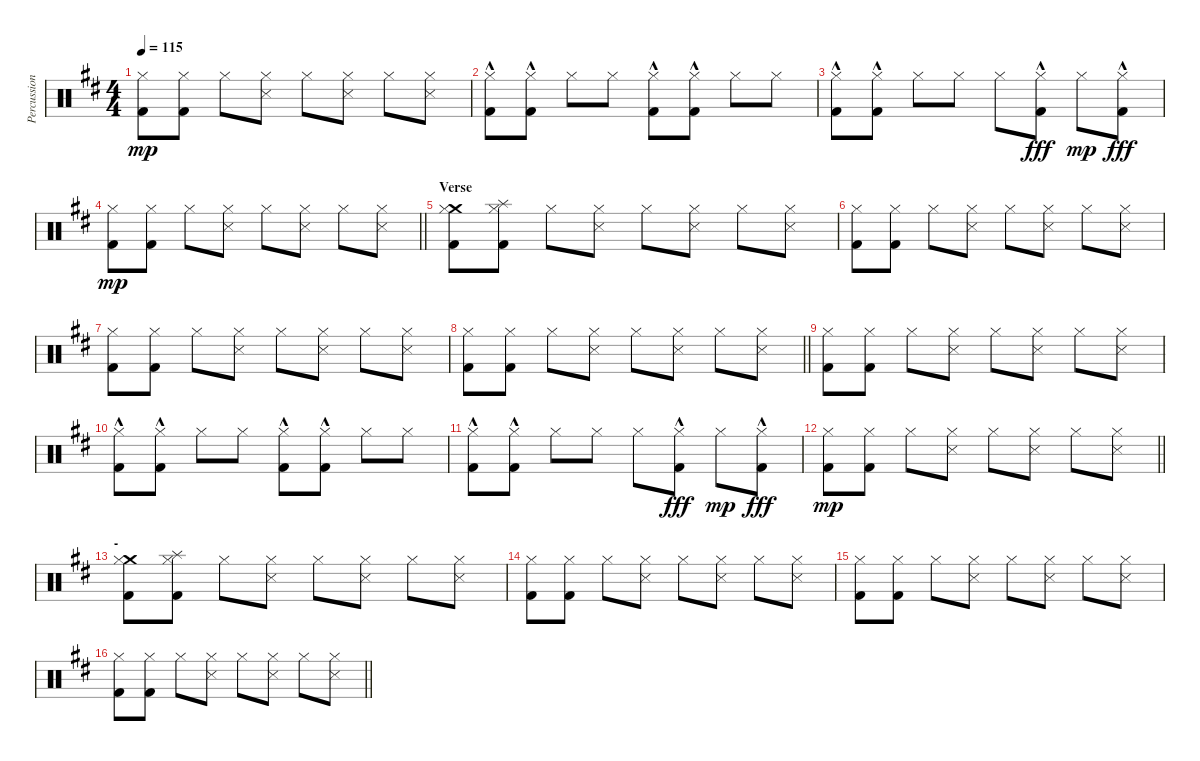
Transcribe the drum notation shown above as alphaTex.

\track ("Percussion" "Percussion") {instrument percussion}
\staff {score}
\articulation defaults
\ts (4 4)
\section ("" "")
\tempo 115
\clef neutral
\ks bminor
("Hi-Hat (closed)" "Kick (hit) 2").8{dy mp} ("Hi-Hat (closed)" "Kick (hit) 2").8 "Hi-Hat (closed)".8 ("Hi-Hat (closed)" "Snare (side stick) 3").8 "Hi-Hat (closed)".8 ("Hi-Hat (closed)" "Snare (side stick) 3").8 "Hi-Hat (closed)".8 ("Hi-Hat (closed)" "Snare (side stick) 3").8 |
("Hi-Hat (closed)" "Kick (hit) 2"{hac}).8 ("Hi-Hat (closed)" "Kick (hit) 2"{hac}).8 "Hi-Hat (closed)".8 "Hi-Hat (closed)".8 ("Hi-Hat (closed)" "Kick (hit) 2"{hac}).8 ("Hi-Hat (closed)" "Kick (hit) 2"{hac}).8 "Hi-Hat (closed)".8 "Hi-Hat (closed)".8 |
("Hi-Hat (closed)" "Kick (hit) 2"{hac}).8 ("Hi-Hat (closed)" "Kick (hit) 2"{hac}).8 "Hi-Hat (closed)".8 "Hi-Hat (closed)".8 "Hi-Hat (closed)".8 ("Hi-Hat (closed)" "Kick (hit) 2"{hac}).8{dy fff} "Hi-Hat (closed)".8{dy mp} ("Hi-Hat (closed)" "Kick (hit) 2"{hac}).8{dy fff} |
\barLineRight lightlight
("Hi-Hat (closed)" "Kick (hit) 2").8{dy mp} ("Hi-Hat (closed)" "Kick (hit) 2").8 "Hi-Hat (closed)".8 ("Hi-Hat (closed)" "Snare (side stick) 3").8 "Hi-Hat (closed)".8 ("Hi-Hat (closed)" "Snare (side stick) 3").8 "Hi-Hat (closed)".8 ("Hi-Hat (closed)" "Snare (side stick) 3").8 |
\section ("" "Verse")
("Crash medium (hit)" "Hi-Hat (closed)" "Kick (hit) 2").8 ("Splash (hit)" "Hi-Hat (closed)" "Kick (hit) 2").8 "Hi-Hat (closed)".8 ("Hi-Hat (closed)" "Snare (side stick) 3").8 "Hi-Hat (closed)".8 ("Hi-Hat (closed)" "Snare (side stick) 3").8 "Hi-Hat (closed)".8 ("Hi-Hat (closed)" "Snare (side stick) 3").8 |
("Hi-Hat (closed)" "Kick (hit) 2").8 ("Hi-Hat (closed)" "Kick (hit) 2").8 "Hi-Hat (closed)".8 ("Hi-Hat (closed)" "Snare (side stick) 3").8 "Hi-Hat (closed)".8 ("Hi-Hat (closed)" "Snare (side stick) 3").8 "Hi-Hat (closed)".8 ("Hi-Hat (closed)" "Snare (side stick) 3").8 |
("Hi-Hat (closed)" "Kick (hit) 2").8 ("Hi-Hat (closed)" "Kick (hit) 2").8 "Hi-Hat (closed)".8 ("Hi-Hat (closed)" "Snare (side stick) 3").8 "Hi-Hat (closed)".8 ("Hi-Hat (closed)" "Snare (side stick) 3").8 "Hi-Hat (closed)".8 ("Hi-Hat (closed)" "Snare (side stick) 3").8 |
\barLineRight lightlight
("Hi-Hat (closed)" "Kick (hit) 2").8 ("Hi-Hat (closed)" "Kick (hit) 2").8 "Hi-Hat (closed)".8 ("Hi-Hat (closed)" "Snare (side stick) 3").8 "Hi-Hat (closed)".8 ("Hi-Hat (closed)" "Snare (side stick) 3").8 "Hi-Hat (closed)".8 ("Hi-Hat (closed)" "Snare (side stick) 3").8 |
\section ("" "")
("Hi-Hat (closed)" "Kick (hit) 2").8 ("Hi-Hat (closed)" "Kick (hit) 2").8 "Hi-Hat (closed)".8 ("Hi-Hat (closed)" "Snare (side stick) 3").8 "Hi-Hat (closed)".8 ("Hi-Hat (closed)" "Snare (side stick) 3").8 "Hi-Hat (closed)".8 ("Hi-Hat (closed)" "Snare (side stick) 3").8 |
("Hi-Hat (closed)" "Kick (hit) 2"{hac}).8 ("Hi-Hat (closed)" "Kick (hit) 2"{hac}).8 "Hi-Hat (closed)".8 "Hi-Hat (closed)".8 ("Hi-Hat (closed)" "Kick (hit) 2"{hac}).8 ("Hi-Hat (closed)" "Kick (hit) 2"{hac}).8 "Hi-Hat (closed)".8 "Hi-Hat (closed)".8 |
("Hi-Hat (closed)" "Kick (hit) 2"{hac}).8 ("Hi-Hat (closed)" "Kick (hit) 2"{hac}).8 "Hi-Hat (closed)".8 "Hi-Hat (closed)".8 "Hi-Hat (closed)".8 ("Hi-Hat (closed)" "Kick (hit) 2"{hac}).8{dy fff} "Hi-Hat (closed)".8{dy mp} ("Hi-Hat (closed)" "Kick (hit) 2"{hac}).8{dy fff} |
\barLineRight lightlight
("Hi-Hat (closed)" "Kick (hit) 2").8{dy mp} ("Hi-Hat (closed)" "Kick (hit) 2").8 "Hi-Hat (closed)".8 ("Hi-Hat (closed)" "Snare (side stick) 3").8 "Hi-Hat (closed)".8 ("Hi-Hat (closed)" "Snare (side stick) 3").8 "Hi-Hat (closed)".8 ("Hi-Hat (closed)" "Snare (side stick) 3").8 |
\section ("" "-")
("Crash medium (hit)" "Hi-Hat (closed)" "Kick (hit) 2").8 ("Splash (hit)" "Hi-Hat (closed)" "Kick (hit) 2").8 "Hi-Hat (closed)".8 ("Hi-Hat (closed)" "Snare (side stick) 3").8 "Hi-Hat (closed)".8 ("Hi-Hat (closed)" "Snare (side stick) 3").8 "Hi-Hat (closed)".8 ("Hi-Hat (closed)" "Snare (side stick) 3").8 |
("Hi-Hat (closed)" "Kick (hit) 2").8 ("Hi-Hat (closed)" "Kick (hit) 2").8 "Hi-Hat (closed)".8 ("Hi-Hat (closed)" "Snare (side stick) 3").8 "Hi-Hat (closed)".8 ("Hi-Hat (closed)" "Snare (side stick) 3").8 "Hi-Hat (closed)".8 ("Hi-Hat (closed)" "Snare (side stick) 3").8 |
("Hi-Hat (closed)" "Kick (hit) 2").8 ("Hi-Hat (closed)" "Kick (hit) 2").8 "Hi-Hat (closed)".8 ("Hi-Hat (closed)" "Snare (side stick) 3").8 "Hi-Hat (closed)".8 ("Hi-Hat (closed)" "Snare (side stick) 3").8 "Hi-Hat (closed)".8 ("Hi-Hat (closed)" "Snare (side stick) 3").8 |
\barLineRight lightlight
("Hi-Hat (closed)" "Kick (hit) 2").8 ("Hi-Hat (closed)" "Kick (hit) 2").8 "Hi-Hat (closed)".8 ("Hi-Hat (closed)" "Snare (side stick) 3").8 "Hi-Hat (closed)".8 ("Hi-Hat (closed)" "Snare (side stick) 3").8 "Hi-Hat (closed)".8 ("Hi-Hat (closed)" "Snare (side stick) 3").8
